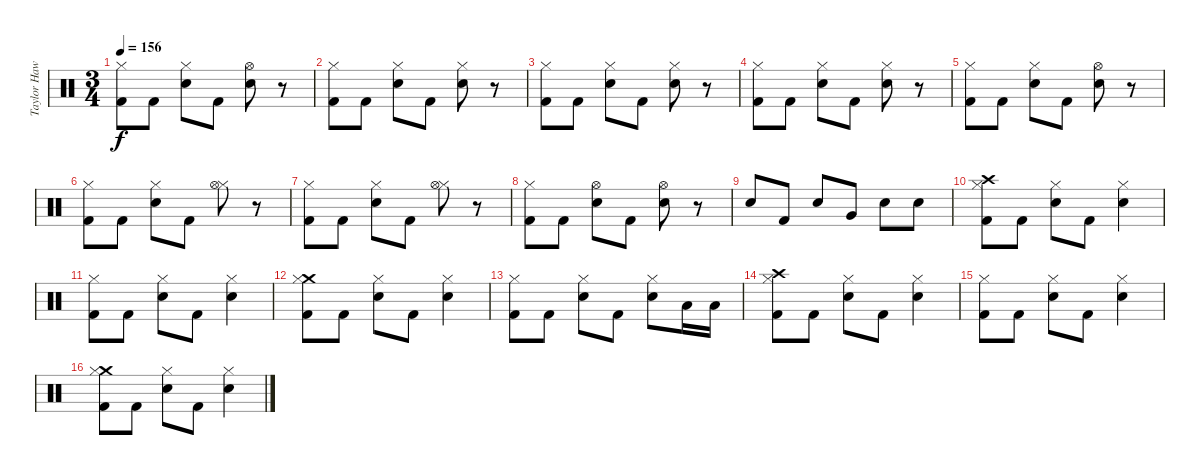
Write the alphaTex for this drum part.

\track ("Taylor Hawkins" "Taylor Haw") {instrument percussion}
\staff {score}
\articulation defaults
\ts (3 4)
\tempo 156
\clef neutral
\ks c
("Hi-Hat (closed)" "Kick (hit) 2").8{dy f} "Kick (hit) 2".8 ("Hi-Hat (closed)" "Electric Snare (hit)").8 "Kick (hit) 2".8 ("Hi-Hat (open)" "Electric Snare (hit)").8 r.8 |
("Hi-Hat (closed)" "Kick (hit) 2").8 "Kick (hit) 2".8 ("Hi-Hat (closed)" "Electric Snare (hit)").8 "Kick (hit) 2".8 ("Hi-Hat (closed)" "Electric Snare (hit)").8 r.8 |
("Hi-Hat (closed)" "Kick (hit) 2").8 "Kick (hit) 2".8 ("Hi-Hat (closed)" "Electric Snare (hit)").8 "Kick (hit) 2".8 ("Hi-Hat (closed)" "Electric Snare (hit)").8 r.8 |
("Hi-Hat (closed)" "Kick (hit) 2").8 "Kick (hit) 2".8 ("Hi-Hat (closed)" "Electric Snare (hit)").8 "Kick (hit) 2".8 ("Hi-Hat (closed)" "Electric Snare (hit)").8 r.8 |
("Hi-Hat (closed)" "Kick (hit) 2").8 "Kick (hit) 2".8 ("Hi-Hat (closed)" "Electric Snare (hit)").8 "Kick (hit) 2".8 ("Hi-Hat (open)" "Electric Snare (hit)").8 r.8 |
("Hi-Hat (closed)" "Kick (hit) 2").8 "Kick (hit) 2".8 ("Hi-Hat (closed)" "Electric Snare (hit)").8 "Kick (hit) 2".8 ("Hi-Hat (closed)" "Hi-Hat (open)").8 r.8 |
("Hi-Hat (closed)" "Kick (hit) 2").8 "Kick (hit) 2".8 ("Hi-Hat (closed)" "Electric Snare (hit)").8 "Kick (hit) 2".8 ("Hi-Hat (closed)" "Hi-Hat (open)").8 r.8 |
("Hi-Hat (closed)" "Kick (hit) 2").8 "Kick (hit) 2".8 ("Hi-Hat (open)" "Electric Snare (hit)").8 "Kick (hit) 2".8 ("Hi-Hat (open)" "Electric Snare (hit)").8 r.8 |
"Snare (hit) 2".8 "Kick (hit) 2".8 "Snare (hit) 2".8 "Very Low Tom (hit)".8 "Snare (hit) 2".8 "Snare (hit) 2".8 |
("Crash high (hit)" "Hi-Hat (closed)" "Kick (hit) 2").8 "Kick (hit) 2".8 ("Electric Snare (hit)" "Hi-Hat (closed)").8 "Kick (hit) 2".8 ("Electric Snare (hit)" "Hi-Hat (closed)").4 |
("Hi-Hat (closed)" "Kick (hit) 2").8 "Kick (hit) 2".8 ("Electric Snare (hit)" "Hi-Hat (closed)").8 "Kick (hit) 2".8 ("Electric Snare (hit)" "Hi-Hat (closed)").4 |
("Crash medium (hit)" "Hi-Hat (closed)" "Kick (hit) 2").8 "Kick (hit) 2".8 ("Electric Snare (hit)" "Hi-Hat (closed)").8 "Kick (hit) 2".8 ("Electric Snare (hit)" "Hi-Hat (closed)").4 |
("Hi-Hat (closed)" "Kick (hit) 2").8 "Kick (hit) 2".8 ("Electric Snare (hit)" "Hi-Hat (closed)").8 "Kick (hit) 2".8 ("Electric Snare (hit)" "Hi-Hat (closed)").8 "Low Tom (hit)".16 "Low Tom (hit)".16 |
("Crash high (hit)" "Hi-Hat (closed)" "Kick (hit) 2").8 "Kick (hit) 2".8 ("Electric Snare (hit)" "Hi-Hat (closed)").8 "Kick (hit) 2".8 ("Electric Snare (hit)" "Hi-Hat (closed)").4 |
("Hi-Hat (closed)" "Kick (hit) 2").8 "Kick (hit) 2".8 ("Electric Snare (hit)" "Hi-Hat (closed)").8 "Kick (hit) 2".8 ("Electric Snare (hit)" "Hi-Hat (closed)").4 |
("Crash medium (hit)" "Hi-Hat (closed)" "Kick (hit) 2").8 "Kick (hit) 2".8 ("Electric Snare (hit)" "Hi-Hat (closed)").8 "Kick (hit) 2".8 ("Electric Snare (hit)" "Hi-Hat (closed)").4
